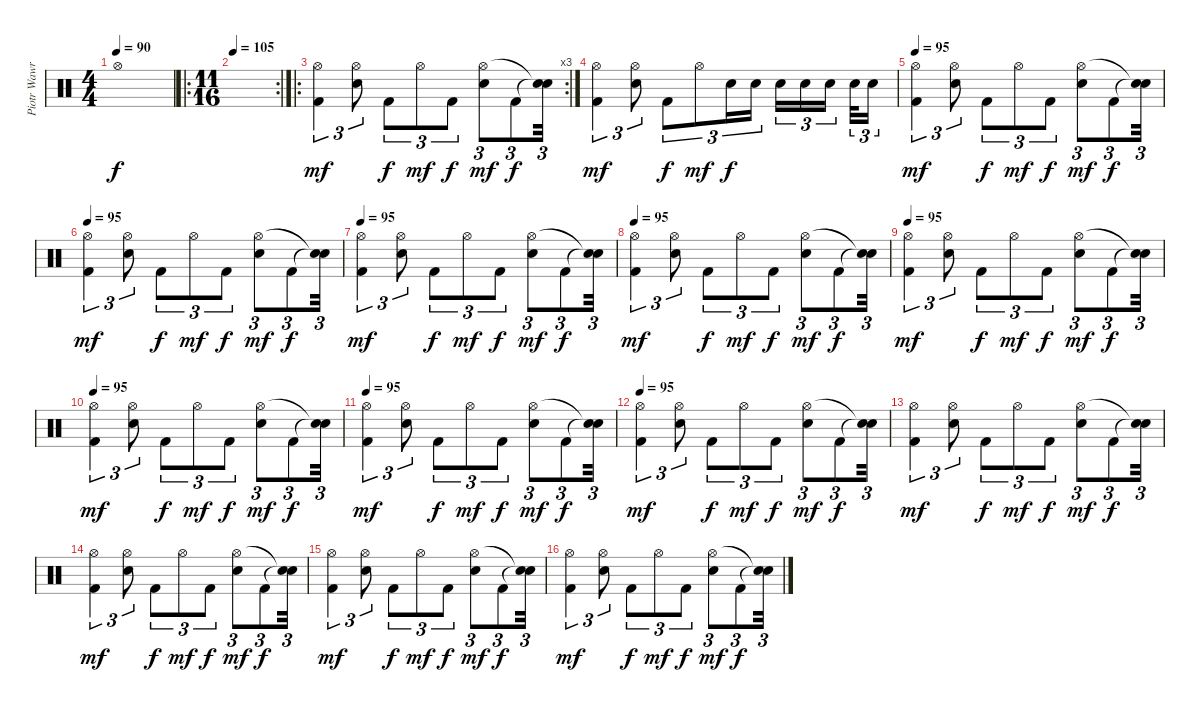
\track ("Piotr Wawrzeniunk (drums)" "Piotr Wawr") {instrument percussion}
\staff {score}
\articulation defaults
\ts (4 4)
\tempo 90
\clef neutral
\ks c "Hi-Hat (open)".1{dy f}
|
\ro
\rc 2
\ts (11 16)
\tempo 105
|
\ro
\rc 3
("Kick (hit) 2" "Hi-Hat (open)").4{tu (3 2) dy mf} ("Electric Snare (hit)" "Hi-Hat (open)").8{tu (3 2)} "Kick (hit) 2".8{tu (3 2) dy f} "Hi-Hat (open)".8{tu (3 2) dy mf} "Kick (hit) 2".8{tu (3 2) dy f} ("Electric Snare (hit)" "Hi-Hat (open)").8{tu (3 2) dy mf} "Kick (hit) 2".8{tu (3 2) dy f} ("Snare (hit)"{t} "Snare (hit)"{t}).32{tu (3 2)} |
("Kick (hit) 2" "Hi-Hat (open)").4{tu (3 2) dy mf} ("Electric Snare (hit)" "Hi-Hat (open)").8{tu (3 2)} "Kick (hit) 2".8{tu (3 2) dy f} "Hi-Hat (open)".8{tu (3 2) dy mf} "Electric Snare (hit)".16{tu (3 2) dy f} "Electric Snare (hit)".16{tu (3 2)} "Electric Snare (hit)".16{tu (3 2)} "Electric Snare (hit)".16{tu (3 2)} "Electric Snare (hit)".16{tu (3 2)} "Electric Snare (hit)".32{tu (3 2)} "Electric Snare (hit)".16{tu (3 2)} |
\tempo 95
("Kick (hit) 2" "Hi-Hat (open)").4{tu (3 2) dy mf} ("Electric Snare (hit)" "Hi-Hat (open)").8{tu (3 2)} "Kick (hit) 2".8{tu (3 2) dy f} "Hi-Hat (open)".8{tu (3 2) dy mf} "Kick (hit) 2".8{tu (3 2) dy f} ("Electric Snare (hit)" "Hi-Hat (open)").8{tu (3 2) dy mf} "Kick (hit) 2".8{tu (3 2) dy f} ("Snare (hit)"{t} "Snare (hit)"{t}).32{tu (3 2)} |
\tempo 95
("Kick (hit) 2" "Hi-Hat (open)").4{tu (3 2) dy mf} ("Electric Snare (hit)" "Hi-Hat (open)").8{tu (3 2)} "Kick (hit) 2".8{tu (3 2) dy f} "Hi-Hat (open)".8{tu (3 2) dy mf} "Kick (hit) 2".8{tu (3 2) dy f} ("Electric Snare (hit)" "Hi-Hat (open)").8{tu (3 2) dy mf} "Kick (hit) 2".8{tu (3 2) dy f} ("Snare (hit)"{t} "Snare (hit)"{t}).32{tu (3 2)} |
\tempo 95
("Kick (hit) 2" "Hi-Hat (open)").4{tu (3 2) dy mf} ("Electric Snare (hit)" "Hi-Hat (open)").8{tu (3 2)} "Kick (hit) 2".8{tu (3 2) dy f} "Hi-Hat (open)".8{tu (3 2) dy mf} "Kick (hit) 2".8{tu (3 2) dy f} ("Electric Snare (hit)" "Hi-Hat (open)").8{tu (3 2) dy mf} "Kick (hit) 2".8{tu (3 2) dy f} ("Snare (hit)"{t} "Snare (hit)"{t}).32{tu (3 2)} |
\tempo 95
("Kick (hit) 2" "Hi-Hat (open)").4{tu (3 2) dy mf} ("Electric Snare (hit)" "Hi-Hat (open)").8{tu (3 2)} "Kick (hit) 2".8{tu (3 2) dy f} "Hi-Hat (open)".8{tu (3 2) dy mf} "Kick (hit) 2".8{tu (3 2) dy f} ("Electric Snare (hit)" "Hi-Hat (open)").8{tu (3 2) dy mf} "Kick (hit) 2".8{tu (3 2) dy f} ("Snare (hit)"{t} "Snare (hit)"{t}).32{tu (3 2)} |
\tempo 95
("Kick (hit) 2" "Hi-Hat (open)").4{tu (3 2) dy mf} ("Electric Snare (hit)" "Hi-Hat (open)").8{tu (3 2)} "Kick (hit) 2".8{tu (3 2) dy f} "Hi-Hat (open)".8{tu (3 2) dy mf} "Kick (hit) 2".8{tu (3 2) dy f} ("Electric Snare (hit)" "Hi-Hat (open)").8{tu (3 2) dy mf} "Kick (hit) 2".8{tu (3 2) dy f} ("Snare (hit)"{t} "Snare (hit)"{t}).32{tu (3 2)} |
\tempo 95
("Kick (hit) 2" "Hi-Hat (open)").4{tu (3 2) dy mf} ("Electric Snare (hit)" "Hi-Hat (open)").8{tu (3 2)} "Kick (hit) 2".8{tu (3 2) dy f} "Hi-Hat (open)".8{tu (3 2) dy mf} "Kick (hit) 2".8{tu (3 2) dy f} ("Electric Snare (hit)" "Hi-Hat (open)").8{tu (3 2) dy mf} "Kick (hit) 2".8{tu (3 2) dy f} ("Snare (hit)"{t} "Snare (hit)"{t}).32{tu (3 2)} |
\tempo 95
("Kick (hit) 2" "Hi-Hat (open)").4{tu (3 2) dy mf} ("Electric Snare (hit)" "Hi-Hat (open)").8{tu (3 2)} "Kick (hit) 2".8{tu (3 2) dy f} "Hi-Hat (open)".8{tu (3 2) dy mf} "Kick (hit) 2".8{tu (3 2) dy f} ("Electric Snare (hit)" "Hi-Hat (open)").8{tu (3 2) dy mf} "Kick (hit) 2".8{tu (3 2) dy f} ("Snare (hit)"{t} "Snare (hit)"{t}).32{tu (3 2)} |
\tempo 95
("Kick (hit) 2" "Hi-Hat (open)").4{tu (3 2) dy mf} ("Electric Snare (hit)" "Hi-Hat (open)").8{tu (3 2)} "Kick (hit) 2".8{tu (3 2) dy f} "Hi-Hat (open)".8{tu (3 2) dy mf} "Kick (hit) 2".8{tu (3 2) dy f} ("Electric Snare (hit)" "Hi-Hat (open)").8{tu (3 2) dy mf} "Kick (hit) 2".8{tu (3 2) dy f} ("Snare (hit)"{t} "Snare (hit)"{t}).32{tu (3 2)} |
("Kick (hit) 2" "Hi-Hat (open)").4{tu (3 2) dy mf} ("Electric Snare (hit)" "Hi-Hat (open)").8{tu (3 2)} "Kick (hit) 2".8{tu (3 2) dy f} "Hi-Hat (open)".8{tu (3 2) dy mf} "Kick (hit) 2".8{tu (3 2) dy f} ("Electric Snare (hit)" "Hi-Hat (open)").8{tu (3 2) dy mf} "Kick (hit) 2".8{tu (3 2) dy f} ("Snare (hit)"{t} "Snare (hit)"{t}).32{tu (3 2)} |
("Kick (hit) 2" "Hi-Hat (open)").4{tu (3 2) dy mf} ("Electric Snare (hit)" "Hi-Hat (open)").8{tu (3 2)} "Kick (hit) 2".8{tu (3 2) dy f} "Hi-Hat (open)".8{tu (3 2) dy mf} "Kick (hit) 2".8{tu (3 2) dy f} ("Electric Snare (hit)" "Hi-Hat (open)").8{tu (3 2) dy mf} "Kick (hit) 2".8{tu (3 2) dy f} ("Snare (hit)"{t} "Snare (hit)"{t}).32{tu (3 2)} |
("Kick (hit) 2" "Hi-Hat (open)").4{tu (3 2) dy mf} ("Electric Snare (hit)" "Hi-Hat (open)").8{tu (3 2)} "Kick (hit) 2".8{tu (3 2) dy f} "Hi-Hat (open)".8{tu (3 2) dy mf} "Kick (hit) 2".8{tu (3 2) dy f} ("Electric Snare (hit)" "Hi-Hat (open)").8{tu (3 2) dy mf} "Kick (hit) 2".8{tu (3 2) dy f} ("Snare (hit)"{t} "Snare (hit)"{t}).32{tu (3 2)} |
("Kick (hit) 2" "Hi-Hat (open)").4{tu (3 2) dy mf} ("Electric Snare (hit)" "Hi-Hat (open)").8{tu (3 2)} "Kick (hit) 2".8{tu (3 2) dy f} "Hi-Hat (open)".8{tu (3 2) dy mf} "Kick (hit) 2".8{tu (3 2) dy f} ("Electric Snare (hit)" "Hi-Hat (open)").8{tu (3 2) dy mf} "Kick (hit) 2".8{tu (3 2) dy f} ("Snare (hit)"{t} "Snare (hit)"{t}).32{tu (3 2)}
